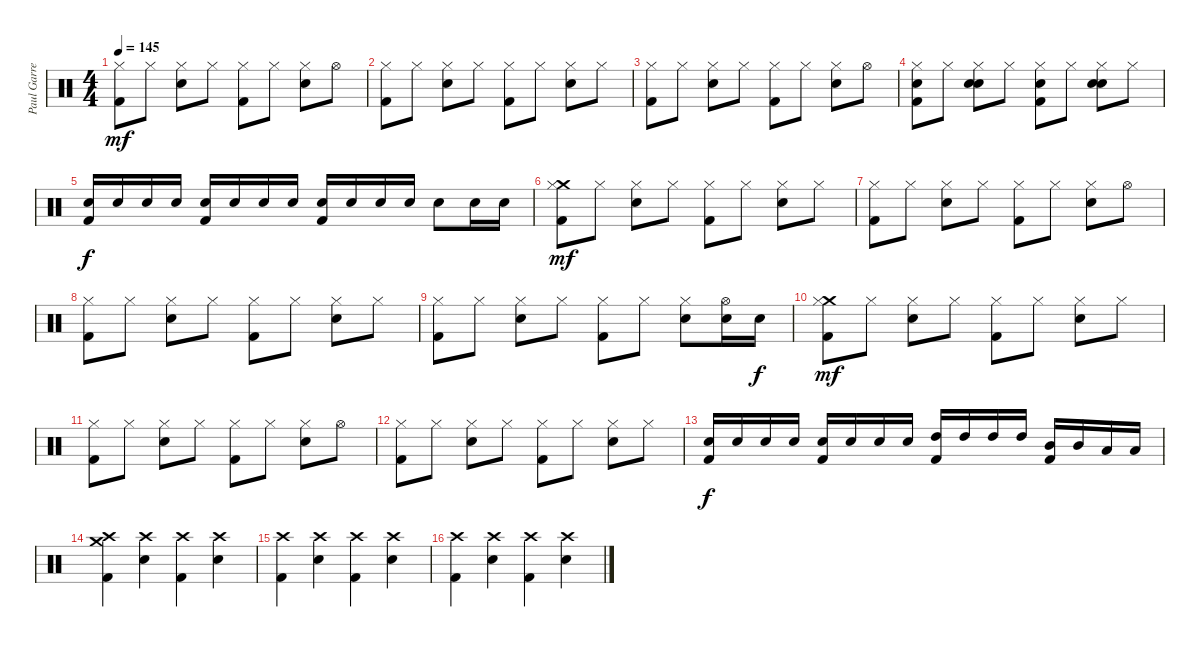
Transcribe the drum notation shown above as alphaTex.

\track ("Paul Garred (Percussion)" "Paul Garre") {instrument percussion}
\staff {score}
\articulation defaults
\ts (4 4)
\tempo 145
\clef neutral
\ks c
("Hi-Hat (closed)" "Kick (hit) 2").8{dy mf} "Hi-Hat (closed)".8 ("Hi-Hat (closed)" "Snare (hit) 2").8 "Hi-Hat (closed)".8 ("Hi-Hat (closed)" "Kick (hit) 2").8 "Hi-Hat (closed)".8 ("Hi-Hat (closed)" "Snare (hit) 2").8 "Hi-Hat (open)".8 |
("Hi-Hat (closed)" "Kick (hit) 2").8 "Hi-Hat (closed)".8 ("Hi-Hat (closed)" "Snare (hit) 2").8 "Hi-Hat (closed)".8 ("Hi-Hat (closed)" "Kick (hit) 2").8 "Hi-Hat (closed)".8 ("Hi-Hat (closed)" "Snare (hit) 2").8 "Hi-Hat (closed)".8 |
("Hi-Hat (closed)" "Kick (hit) 2").8 "Hi-Hat (closed)".8 ("Hi-Hat (closed)" "Snare (hit) 2").8 "Hi-Hat (closed)".8 ("Hi-Hat (closed)" "Kick (hit) 2").8 "Hi-Hat (closed)".8 ("Hi-Hat (closed)" "Snare (hit) 2").8 "Hi-Hat (open)".8 |
("Hi-Hat (closed)" "Snare (hit) 2" "Kick (hit) 2").8 "Hi-Hat (closed)".8 ("Hi-Hat (closed)" "Snare (hit) 2" "Snare (hit) 2").8 "Hi-Hat (closed)".8 ("Hi-Hat (closed)" "Snare (hit) 2" "Kick (hit) 2").8 "Hi-Hat (closed)".8 ("Hi-Hat (closed)" "Snare (hit) 2" "Snare (hit) 2").8 "Hi-Hat (closed)".8 |
("Snare (hit) 2" "Kick (hit) 2").16{dy f} "Snare (hit) 2".16 "Snare (hit) 2".16 "Snare (hit) 2".16 ("Snare (hit) 2" "Kick (hit) 2").16 "Snare (hit) 2".16 "Snare (hit) 2".16 "Snare (hit) 2".16 ("Snare (hit) 2" "Kick (hit) 2").16 "Snare (hit) 2".16 "Snare (hit) 2".16 "Snare (hit) 2".16 "Snare (hit) 2".8 "Snare (hit) 2".16 "Snare (hit) 2".16 |
("Crash medium (hit)" "Hi-Hat (closed)" "Kick (hit) 2").8{dy mf} "Hi-Hat (closed)".8 ("Hi-Hat (closed)" "Snare (hit) 2").8 "Hi-Hat (closed)".8 ("Hi-Hat (closed)" "Kick (hit) 2").8 "Hi-Hat (closed)".8 ("Hi-Hat (closed)" "Snare (hit) 2").8 "Hi-Hat (closed)".8 |
("Hi-Hat (closed)" "Kick (hit) 2").8 "Hi-Hat (closed)".8 ("Hi-Hat (closed)" "Snare (hit) 2").8 "Hi-Hat (closed)".8 ("Hi-Hat (closed)" "Kick (hit) 2").8 "Hi-Hat (closed)".8 ("Hi-Hat (closed)" "Snare (hit) 2").8 "Hi-Hat (open)".8 |
("Hi-Hat (closed)" "Kick (hit) 2").8 "Hi-Hat (closed)".8 ("Hi-Hat (closed)" "Snare (hit) 2").8 "Hi-Hat (closed)".8 ("Hi-Hat (closed)" "Kick (hit) 2").8 "Hi-Hat (closed)".8 ("Hi-Hat (closed)" "Snare (hit) 2").8 "Hi-Hat (closed)".8 |
("Hi-Hat (closed)" "Kick (hit) 2").8 "Hi-Hat (closed)".8 ("Hi-Hat (closed)" "Snare (hit) 2").8 "Hi-Hat (closed)".8 ("Hi-Hat (closed)" "Kick (hit) 2").8 "Hi-Hat (closed)".8 ("Hi-Hat (closed)" "Snare (hit) 2").8 ("Hi-Hat (open)" "Snare (hit) 2").16 "Snare (hit) 2".16{dy f} |
("Crash medium (hit)" "Hi-Hat (closed)" "Kick (hit) 2").8{dy mf} "Hi-Hat (closed)".8 ("Hi-Hat (closed)" "Snare (hit) 2").8 "Hi-Hat (closed)".8 ("Hi-Hat (closed)" "Kick (hit) 2").8 "Hi-Hat (closed)".8 ("Hi-Hat (closed)" "Snare (hit) 2").8 "Hi-Hat (closed)".8 |
("Hi-Hat (closed)" "Kick (hit) 2").8 "Hi-Hat (closed)".8 ("Hi-Hat (closed)" "Snare (hit) 2").8 "Hi-Hat (closed)".8 ("Hi-Hat (closed)" "Kick (hit) 2").8 "Hi-Hat (closed)".8 ("Hi-Hat (closed)" "Snare (hit) 2").8 "Hi-Hat (open)".8 |
("Hi-Hat (closed)" "Kick (hit) 2").8 "Hi-Hat (closed)".8 ("Hi-Hat (closed)" "Snare (hit) 2").8 "Hi-Hat (closed)".8 ("Hi-Hat (closed)" "Kick (hit) 2").8 "Hi-Hat (closed)".8 ("Hi-Hat (closed)" "Snare (hit) 2").8 "Hi-Hat (closed)".8 |
("Snare (hit) 2" "Kick (hit) 2").16{dy f} "Snare (hit) 2".16 "Snare (hit) 2".16 "Snare (hit) 2".16 ("Snare (hit) 2" "Kick (hit) 2").16 "Snare (hit) 2".16 "Snare (hit) 2".16 "Snare (hit) 2".16 ("High Tom (hit)" "Kick (hit) 2").16 "High Tom (hit)".16 "High Tom (hit)".16 "High Tom (hit)".16 ("Mid Tom (hit)" "Kick (hit) 2").16 "Mid Tom (hit)".16 "Low Tom (hit)".16 "Low Tom (hit)".16 |
("Crash medium (hit)" "Crash high (hit)" "Kick (hit) 2").4 ("Crash high (hit)" "Snare (hit) 2").4 ("Crash high (hit)" "Kick (hit) 2").4 ("Crash high (hit)" "Snare (hit) 2").4 |
("Crash high (hit)" "Kick (hit) 2").4 ("Crash high (hit)" "Snare (hit) 2").4 ("Crash high (hit)" "Kick (hit) 2").4 ("Crash high (hit)" "Snare (hit) 2").4 |
("Crash high (hit)" "Kick (hit) 2").4 ("Crash high (hit)" "Snare (hit) 2").4 ("Crash high (hit)" "Kick (hit) 2").4 ("Crash high (hit)" "Snare (hit) 2").4
